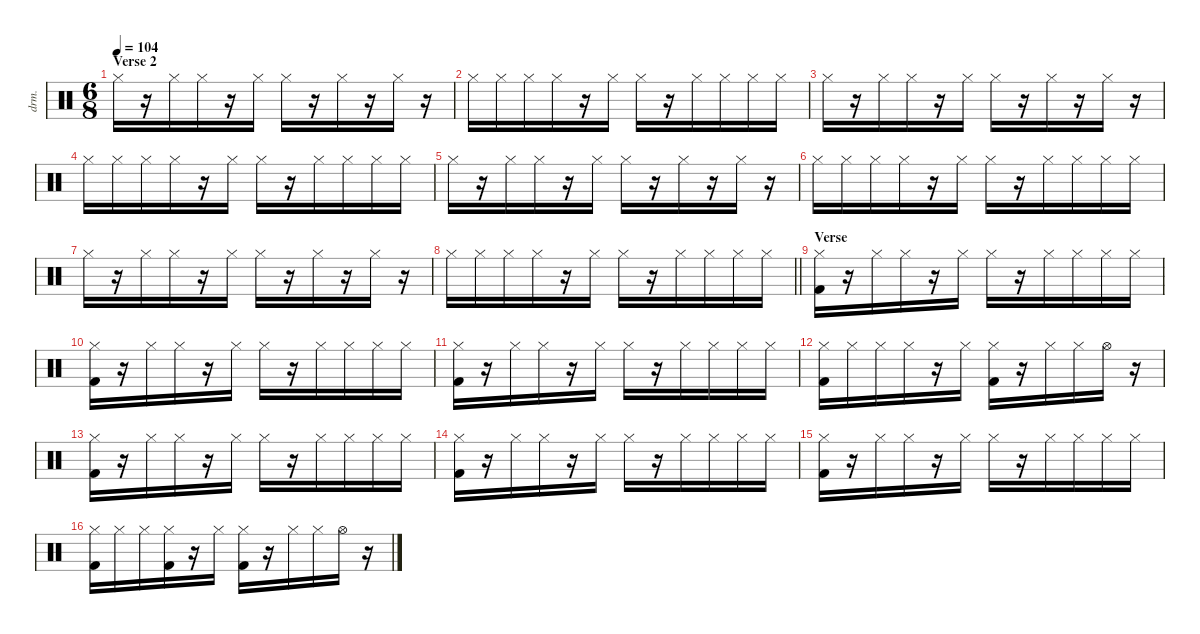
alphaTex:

\defaultSystemsLayout 4
\hideDynamics
\bracketExtendMode nobrackets
\otherSystemsTrackNameOrientation horizontal
\track ("Gene Hoglan" "drm.") {instrument percussion}
\staff {score}
\articulation defaults
\ts (6 8)
\section ("" "Verse 2")
\tempo 104
\clef neutral
\ks c "Hi-Hat (closed)".16{dy f beam Down}
r.16{beam Down} "Hi-Hat (closed)".16{beam Down} "Hi-Hat (closed)".16{beam Down} r.16{beam Down} "Hi-Hat (closed)".16{beam Down} "Hi-Hat (closed)".16{beam Down} r.16{beam Down} "Hi-Hat (closed)".16{beam Down} r.16{beam Down} "Hi-Hat (closed)".16{beam Down} r.16{beam Down} |
"Hi-Hat (closed)".16{beam Down} "Hi-Hat (closed)".16{beam Down} "Hi-Hat (closed)".16{beam Down} "Hi-Hat (closed)".16{beam Down} r.16{beam Down} "Hi-Hat (closed)".16{beam Down} "Hi-Hat (closed)".16{beam Down} r.16{beam Down} "Hi-Hat (closed)".16{beam Down} "Hi-Hat (closed)".16{beam Down} "Hi-Hat (closed)".16{beam Down} "Hi-Hat (closed)".16{beam Down} |
"Hi-Hat (closed)".16{beam Down} r.16{beam Down} "Hi-Hat (closed)".16{beam Down} "Hi-Hat (closed)".16{beam Down} r.16{beam Down} "Hi-Hat (closed)".16{beam Down} "Hi-Hat (closed)".16{beam Down} r.16{beam Down} "Hi-Hat (closed)".16{beam Down} r.16{beam Down} "Hi-Hat (closed)".16{beam Down} r.16{beam Down} |
"Hi-Hat (closed)".16{beam Down} "Hi-Hat (closed)".16{beam Down} "Hi-Hat (closed)".16{beam Down} "Hi-Hat (closed)".16{beam Down} r.16{beam Down} "Hi-Hat (closed)".16{beam Down} "Hi-Hat (closed)".16{beam Down} r.16{beam Down} "Hi-Hat (closed)".16{beam Down} "Hi-Hat (closed)".16{beam Down} "Hi-Hat (closed)".16{beam Down} "Hi-Hat (closed)".16{beam Down} |
"Hi-Hat (closed)".16{beam Down} r.16{beam Down} "Hi-Hat (closed)".16{beam Down} "Hi-Hat (closed)".16{beam Down} r.16{beam Down} "Hi-Hat (closed)".16{beam Down} "Hi-Hat (closed)".16{beam Down} r.16{beam Down} "Hi-Hat (closed)".16{beam Down} r.16{beam Down} "Hi-Hat (closed)".16{beam Down} r.16{beam Down} |
"Hi-Hat (closed)".16{beam Down} "Hi-Hat (closed)".16{beam Down} "Hi-Hat (closed)".16{beam Down} "Hi-Hat (closed)".16{beam Down} r.16{beam Down} "Hi-Hat (closed)".16{beam Down} "Hi-Hat (closed)".16{beam Down} r.16{beam Down} "Hi-Hat (closed)".16{beam Down} "Hi-Hat (closed)".16{beam Down} "Hi-Hat (closed)".16{beam Down} "Hi-Hat (closed)".16{beam Down} |
"Hi-Hat (closed)".16{beam Down} r.16{beam Down} "Hi-Hat (closed)".16{beam Down} "Hi-Hat (closed)".16{beam Down} r.16{beam Down} "Hi-Hat (closed)".16{beam Down} "Hi-Hat (closed)".16{beam Down} r.16{beam Down} "Hi-Hat (closed)".16{beam Down} r.16{beam Down} "Hi-Hat (closed)".16{beam Down} r.16{beam Down} |
\barLineRight lightlight "Hi-Hat (closed)".16{beam Down} "Hi-Hat (closed)".16{beam Down} "Hi-Hat (closed)".16{beam Down} "Hi-Hat (closed)".16{beam Down}
r.16{beam Down} "Hi-Hat (closed)".16{beam Down} "Hi-Hat (closed)".16{beam Down} r.16{beam Down} "Hi-Hat (closed)".16{beam Down} "Hi-Hat (closed)".16{beam Down} "Hi-Hat (closed)".16{beam Down} "Hi-Hat (closed)".16{beam Down} |
\section ("" "Verse")
("Hi-Hat (closed)" "Kick (hit) 2").16{beam Down} r.16{beam Down} "Hi-Hat (closed)".16{beam Down} "Hi-Hat (closed)".16{beam Down} r.16{beam Down} "Hi-Hat (closed)".16{beam Down} "Hi-Hat (closed)".16{beam Down} r.16{beam Down} "Hi-Hat (closed)".16{beam Down} "Hi-Hat (closed)".16{beam Down} "Hi-Hat (closed)".16{beam Down} "Hi-Hat (closed)".16{beam Down} |
("Hi-Hat (closed)" "Kick (hit) 2").16{beam Down} r.16{beam Down} "Hi-Hat (closed)".16{beam Down} "Hi-Hat (closed)".16{beam Down} r.16{beam Down} "Hi-Hat (closed)".16{beam Down} "Hi-Hat (closed)".16{beam Down} r.16{beam Down} "Hi-Hat (closed)".16{beam Down} "Hi-Hat (closed)".16{beam Down} "Hi-Hat (closed)".16{beam Down} "Hi-Hat (closed)".16{beam Down} |
("Hi-Hat (closed)" "Kick (hit) 2").16{beam Down} r.16{beam Down} "Hi-Hat (closed)".16{beam Down} "Hi-Hat (closed)".16{beam Down} r.16{beam Down} "Hi-Hat (closed)".16{beam Down} "Hi-Hat (closed)".16{beam Down} r.16{beam Down} "Hi-Hat (closed)".16{beam Down} "Hi-Hat (closed)".16{beam Down} "Hi-Hat (closed)".16{beam Down} "Hi-Hat (closed)".16{beam Down} |
("Hi-Hat (closed)" "Kick (hit) 2").16{beam Down} "Hi-Hat (closed)".16{beam Down} "Hi-Hat (closed)".16{beam Down} "Hi-Hat (closed)".16{beam Down} r.16{beam Down} "Hi-Hat (closed)".16{beam Down} ("Hi-Hat (closed)" "Kick (hit) 2").16{beam Down} r.16{beam Down} "Hi-Hat (closed)".16{beam Down} "Hi-Hat (closed)".16{beam Down} "Hi-Hat (open)".16{beam Down} r.16{beam Down} |
("Hi-Hat (closed)" "Kick (hit) 2").16{beam Down} r.16{beam Down} "Hi-Hat (closed)".16{beam Down} "Hi-Hat (closed)".16{beam Down} r.16{beam Down} "Hi-Hat (closed)".16{beam Down} "Hi-Hat (closed)".16{beam Down} r.16{beam Down} "Hi-Hat (closed)".16{beam Down} "Hi-Hat (closed)".16{beam Down} "Hi-Hat (closed)".16{beam Down} "Hi-Hat (closed)".16{beam Down} |
("Hi-Hat (closed)" "Kick (hit) 2").16{beam Down} r.16{beam Down} "Hi-Hat (closed)".16{beam Down} "Hi-Hat (closed)".16{beam Down} r.16{beam Down} "Hi-Hat (closed)".16{beam Down} "Hi-Hat (closed)".16{beam Down} r.16{beam Down} "Hi-Hat (closed)".16{beam Down} "Hi-Hat (closed)".16{beam Down} "Hi-Hat (closed)".16{beam Down} "Hi-Hat (closed)".16{beam Down} |
("Hi-Hat (closed)" "Kick (hit) 2").16{beam Down} r.16{beam Down} "Hi-Hat (closed)".16{beam Down} "Hi-Hat (closed)".16{beam Down} r.16{beam Down} "Hi-Hat (closed)".16{beam Down} "Hi-Hat (closed)".16{beam Down} r.16{beam Down} "Hi-Hat (closed)".16{beam Down} "Hi-Hat (closed)".16{beam Down} "Hi-Hat (closed)".16{beam Down} "Hi-Hat (closed)".16{beam Down} |
("Hi-Hat (closed)" "Kick (hit) 2").16{beam Down} "Hi-Hat (closed)".16{beam Down} "Hi-Hat (closed)".16{beam Down} ("Hi-Hat (closed)" "Kick (hit) 2").16{beam Down} r.16{beam Down} "Hi-Hat (closed)".16{beam Down} ("Hi-Hat (closed)" "Kick (hit) 2").16{beam Down} r.16{beam Down} "Hi-Hat (closed)".16{beam Down} "Hi-Hat (closed)".16{beam Down} "Hi-Hat (open)".16{beam Down} r.16{beam Down}
